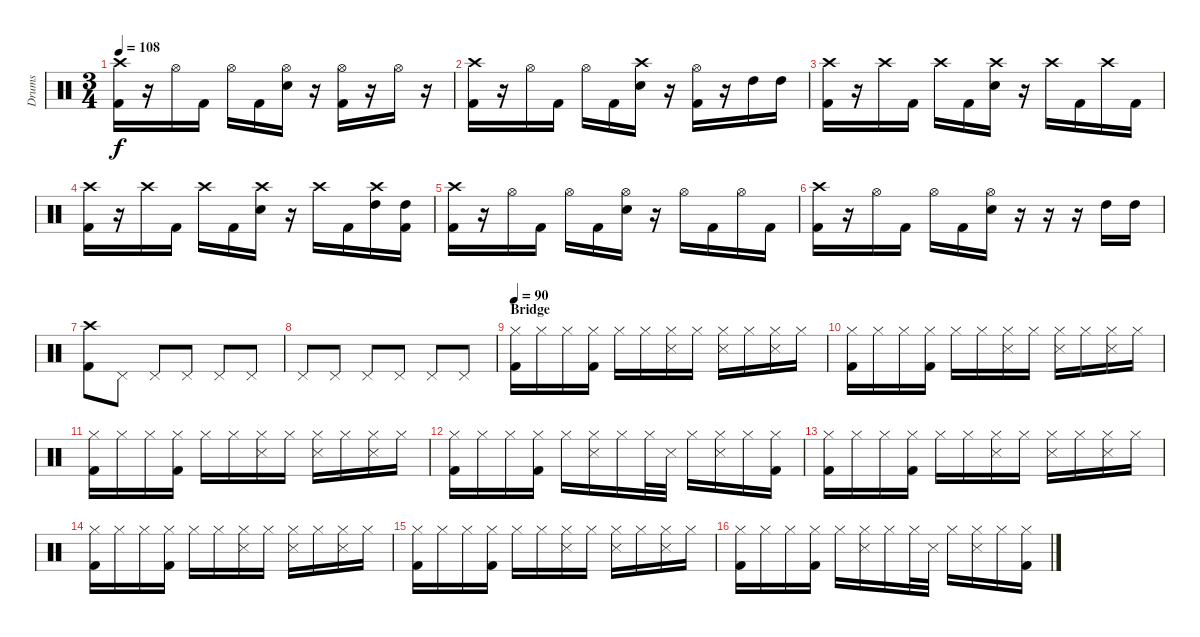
\track ("Drums" "Drums") {instrument percussion}
\staff {score}
\articulation defaults
\ts (3 4)
\tempo 108
\clef neutral
\ks c
("Crash high (hit)" "Kick (hit) 2").16{dy f} r.16 "Hi-Hat (open)".16 "Kick (hit) 2".16 "Hi-Hat (open)".16 "Kick (hit) 2".16 ("Hi-Hat (open)" "Electric Snare (hit)").16 r.16 ("Hi-Hat (open)" "Kick (hit) 2").16 r.16 "Hi-Hat (open)".16 r.16 |
("Crash high (hit)" "Kick (hit) 2").16 r.16 "Hi-Hat (open)".16 "Kick (hit) 2".16 "Hi-Hat (open)".16 "Kick (hit) 2".16 ("Crash high (hit)" "Electric Snare (hit)").16 r.16 ("Hi-Hat (open)" "Kick (hit) 2").16 r.16 "High Tom (hit)".16 "High Tom (hit)".16 |
("Crash high (hit)" "Kick (hit) 2").16 r.16 "Crash high (hit)".16 "Kick (hit) 2".16 "Crash high (hit)".16 "Kick (hit) 2".16 ("Crash high (hit)" "Electric Snare (hit)").16 r.16 "Crash high (hit)".16 "Kick (hit) 2".16 "Crash high (hit)".16 "Kick (hit) 2".16 |
("Crash high (hit)" "Kick (hit) 2").16 r.16 "Crash high (hit)".16 "Kick (hit) 2".16 "Crash high (hit)".16 "Kick (hit) 2".16 ("Crash high (hit)" "Electric Snare (hit)").16 r.16 "Crash high (hit)".16 "Kick (hit) 2".16 ("Crash high (hit)" "High Tom (hit)").16 ("High Tom (hit)" "Kick (hit) 2").16 |
("Crash high (hit)" "Kick (hit) 2").16 r.16 "Hi-Hat (open)".16 "Kick (hit) 2".16 "Hi-Hat (open)".16 "Kick (hit) 2".16 ("Hi-Hat (open)" "Electric Snare (hit)").16 r.16 "Hi-Hat (open)".16 "Kick (hit) 2".16 "Hi-Hat (open)".16 "Kick (hit) 2".16 |
("Crash high (hit)" "Kick (hit) 2").16 r.16 "Hi-Hat (open)".16 "Kick (hit) 2".16 "Hi-Hat (open)".16 "Kick (hit) 2".16 ("Hi-Hat (open)" "Electric Snare (hit)").16 r.16 r.16 r.16 "High Tom (hit)".16 "High Tom (hit)".16 |
("Crash high (hit)" "Kick (hit) 2").8 "Pedal Hi-Hat (hit)".8 "Pedal Hi-Hat (hit)".8 "Pedal Hi-Hat (hit)".8 "Pedal Hi-Hat (hit)".8 "Pedal Hi-Hat (hit)".8 |
"Pedal Hi-Hat (hit)".8 "Pedal Hi-Hat (hit)".8 "Pedal Hi-Hat (hit)".8 "Pedal Hi-Hat (hit)".8 "Pedal Hi-Hat (hit)".8 "Pedal Hi-Hat (hit)".8 |
\section ("" "Bridge")
\tempo 90
("Hi-Hat (closed)" "Kick (hit) 2").16 "Hi-Hat (closed)".16 "Hi-Hat (closed)".16 ("Hi-Hat (closed)" "Kick (hit) 2").16 "Hi-Hat (closed)".16 "Hi-Hat (closed)".16 ("Hi-Hat (closed)" "Snare (side stick) 3").16 "Hi-Hat (closed)".16 ("Hi-Hat (closed)" "Snare (side stick) 3").16 "Hi-Hat (closed)".16 ("Hi-Hat (closed)" "Snare (side stick) 3").16 "Hi-Hat (closed)".16 |
("Hi-Hat (closed)" "Kick (hit) 2").16 "Hi-Hat (closed)".16 "Hi-Hat (closed)".16 ("Hi-Hat (closed)" "Kick (hit) 2").16 "Hi-Hat (closed)".16 "Hi-Hat (closed)".16 ("Hi-Hat (closed)" "Snare (side stick) 3").16 "Hi-Hat (closed)".16 ("Hi-Hat (closed)" "Snare (side stick) 3").16 "Hi-Hat (closed)".16 ("Hi-Hat (closed)" "Snare (side stick) 3").16 "Hi-Hat (closed)".16 |
("Hi-Hat (closed)" "Kick (hit) 2").16 "Hi-Hat (closed)".16 "Hi-Hat (closed)".16 ("Hi-Hat (closed)" "Kick (hit) 2").16 "Hi-Hat (closed)".16 "Hi-Hat (closed)".16 ("Hi-Hat (closed)" "Snare (side stick) 3").16 "Hi-Hat (closed)".16 ("Hi-Hat (closed)" "Snare (side stick) 3").16 "Hi-Hat (closed)".16 ("Hi-Hat (closed)" "Snare (side stick) 3").16 "Hi-Hat (closed)".16 |
("Hi-Hat (closed)" "Kick (hit) 2").16 "Hi-Hat (closed)".16 "Hi-Hat (closed)".16 ("Hi-Hat (closed)" "Kick (hit) 2").16 "Hi-Hat (closed)".16 ("Hi-Hat (closed)" "Snare (side stick) 3").16 "Hi-Hat (closed)".16 "Hi-Hat (closed)".32 "Snare (side stick) 3".32 "Hi-Hat (closed)".16 ("Hi-Hat (closed)" "Snare (side stick) 3").16 "Hi-Hat (closed)".16 ("Hi-Hat (closed)" "Kick (hit) 2").16 |
("Hi-Hat (closed)" "Kick (hit) 2").16 "Hi-Hat (closed)".16 "Hi-Hat (closed)".16 ("Hi-Hat (closed)" "Kick (hit) 2").16 "Hi-Hat (closed)".16 "Hi-Hat (closed)".16 ("Hi-Hat (closed)" "Snare (side stick) 3").16 "Hi-Hat (closed)".16 ("Hi-Hat (closed)" "Snare (side stick) 3").16 "Hi-Hat (closed)".16 ("Hi-Hat (closed)" "Snare (side stick) 3").16 "Hi-Hat (closed)".16 |
("Hi-Hat (closed)" "Kick (hit) 2").16 "Hi-Hat (closed)".16 "Hi-Hat (closed)".16 ("Hi-Hat (closed)" "Kick (hit) 2").16 "Hi-Hat (closed)".16 "Hi-Hat (closed)".16 ("Hi-Hat (closed)" "Snare (side stick) 3").16 "Hi-Hat (closed)".16 ("Hi-Hat (closed)" "Snare (side stick) 3").16 "Hi-Hat (closed)".16 ("Hi-Hat (closed)" "Snare (side stick) 3").16 "Hi-Hat (closed)".16 |
("Hi-Hat (closed)" "Kick (hit) 2").16 "Hi-Hat (closed)".16 "Hi-Hat (closed)".16 ("Hi-Hat (closed)" "Kick (hit) 2").16 "Hi-Hat (closed)".16 "Hi-Hat (closed)".16 ("Hi-Hat (closed)" "Snare (side stick) 3").16 "Hi-Hat (closed)".16 ("Hi-Hat (closed)" "Snare (side stick) 3").16 "Hi-Hat (closed)".16 ("Hi-Hat (closed)" "Snare (side stick) 3").16 "Hi-Hat (closed)".16 |
("Hi-Hat (closed)" "Kick (hit) 2").16 "Hi-Hat (closed)".16 "Hi-Hat (closed)".16 ("Hi-Hat (closed)" "Kick (hit) 2").16 "Hi-Hat (closed)".16 ("Hi-Hat (closed)" "Snare (side stick) 3").16 "Hi-Hat (closed)".16 "Hi-Hat (closed)".32 "Snare (side stick) 3".32 "Hi-Hat (closed)".16 ("Hi-Hat (closed)" "Snare (side stick) 3").16 "Hi-Hat (closed)".16 ("Hi-Hat (closed)" "Kick (hit) 2").16
